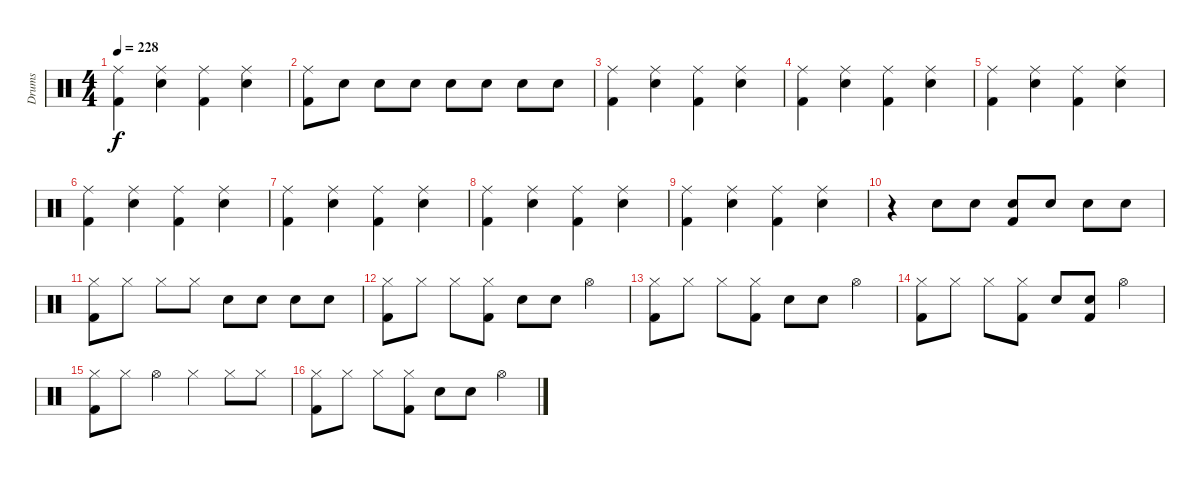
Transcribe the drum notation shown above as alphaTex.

\track ("Drums" "Drums") {instrument percussion}
\staff {score}
\articulation defaults
\ts (4 4)
\tempo 228
\clef neutral
\ks c
("Ride (middle)" "Kick (hit) 2").4{dy f} ("Ride (middle)" "Electric Snare (hit)").4 ("Ride (middle)" "Kick (hit) 2").4 ("Ride (middle)" "Electric Snare (hit)").4 |
("Ride (middle)" "Kick (hit) 2").8 "Electric Snare (hit)".8 "Electric Snare (hit)".8 "Electric Snare (hit)".8 "Electric Snare (hit)".8 "Electric Snare (hit)".8 "Electric Snare (hit)".8 "Electric Snare (hit)".8 |
("Ride (middle)" "Kick (hit) 2").4 ("Ride (middle)" "Electric Snare (hit)").4 ("Ride (middle)" "Kick (hit) 2").4 ("Ride (middle)" "Electric Snare (hit)").4 |
("Ride (middle)" "Kick (hit) 2").4 ("Ride (middle)" "Electric Snare (hit)").4 ("Ride (middle)" "Kick (hit) 2").4 ("Ride (middle)" "Electric Snare (hit)").4 |
("Ride (middle)" "Kick (hit) 2").4 ("Ride (middle)" "Electric Snare (hit)").4 ("Ride (middle)" "Kick (hit) 2").4 ("Ride (middle)" "Electric Snare (hit)").4 |
("Ride (middle)" "Kick (hit) 2").4 ("Ride (middle)" "Electric Snare (hit)").4 ("Ride (middle)" "Kick (hit) 2").4 ("Ride (middle)" "Electric Snare (hit)").4 |
("Ride (middle)" "Kick (hit) 2").4 ("Ride (middle)" "Electric Snare (hit)").4 ("Ride (middle)" "Kick (hit) 2").4 ("Ride (middle)" "Electric Snare (hit)").4 |
("Ride (middle)" "Kick (hit) 2").4 ("Ride (middle)" "Electric Snare (hit)").4 ("Ride (middle)" "Kick (hit) 2").4 ("Ride (middle)" "Electric Snare (hit)").4 |
("Ride (middle)" "Kick (hit) 2").4 ("Ride (middle)" "Electric Snare (hit)").4 ("Ride (middle)" "Kick (hit) 2").4 ("Ride (middle)" "Electric Snare (hit)").4 |
r.4 "Electric Snare (hit)".8 "Electric Snare (hit)".8 ("Electric Snare (hit)" "Kick (hit) 2").8 "Electric Snare (hit)".8 "Electric Snare (hit)".8 "Electric Snare (hit)".8 |
("Hi-Hat (closed)" "Kick (hit) 2").8 "Hi-Hat (closed)".8 "Hi-Hat (closed)".8 "Hi-Hat (closed)".8 "Electric Snare (hit)".8 "Electric Snare (hit)".8 "Electric Snare (hit)".8 "Electric Snare (hit)".8 |
("Hi-Hat (closed)" "Kick (hit) 2").8 "Hi-Hat (closed)".8 "Hi-Hat (closed)".8 ("Hi-Hat (closed)" "Kick (hit) 2").8 "Electric Snare (hit)".8 "Electric Snare (hit)".8 "Hi-Hat (open)".4 |
("Hi-Hat (closed)" "Kick (hit) 2").8 "Hi-Hat (closed)".8 "Hi-Hat (closed)".8 ("Hi-Hat (closed)" "Kick (hit) 2").8 "Electric Snare (hit)".8 "Electric Snare (hit)".8 "Hi-Hat (open)".4 |
("Hi-Hat (closed)" "Kick (hit) 2").8 "Hi-Hat (closed)".8 "Hi-Hat (closed)".8 ("Hi-Hat (closed)" "Kick (hit) 2").8 "Electric Snare (hit)".8 ("Electric Snare (hit)" "Kick (hit) 2").8 "Hi-Hat (open)".4 |
("Hi-Hat (closed)" "Kick (hit) 2").8 "Hi-Hat (closed)".8 "Hi-Hat (open)".4 "Hi-Hat (closed)".4 "Hi-Hat (closed)".8 "Hi-Hat (closed)".8 |
("Hi-Hat (closed)" "Kick (hit) 2").8 "Hi-Hat (closed)".8 "Hi-Hat (closed)".8 ("Hi-Hat (closed)" "Kick (hit) 2").8 "Electric Snare (hit)".8 "Electric Snare (hit)".8 "Hi-Hat (open)".4
